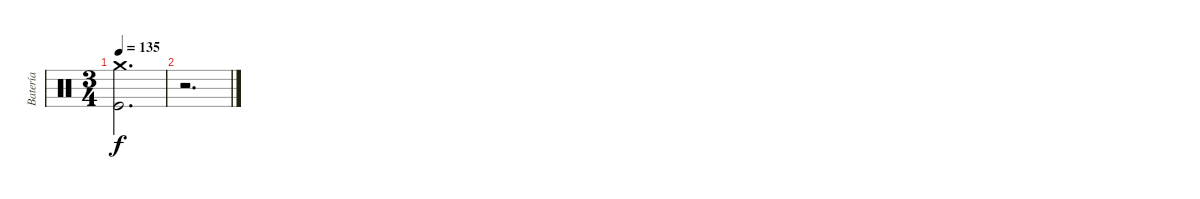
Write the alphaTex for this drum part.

\track ("Batería" "Batería") {instrument percussion}
\staff {score}
\articulation defaults
\ts (3 4)
\tempo 135
\clef neutral
\ks c
("Crash medium (hit)" "Kick (hit)").2{d dy f} |
r.2{d}
